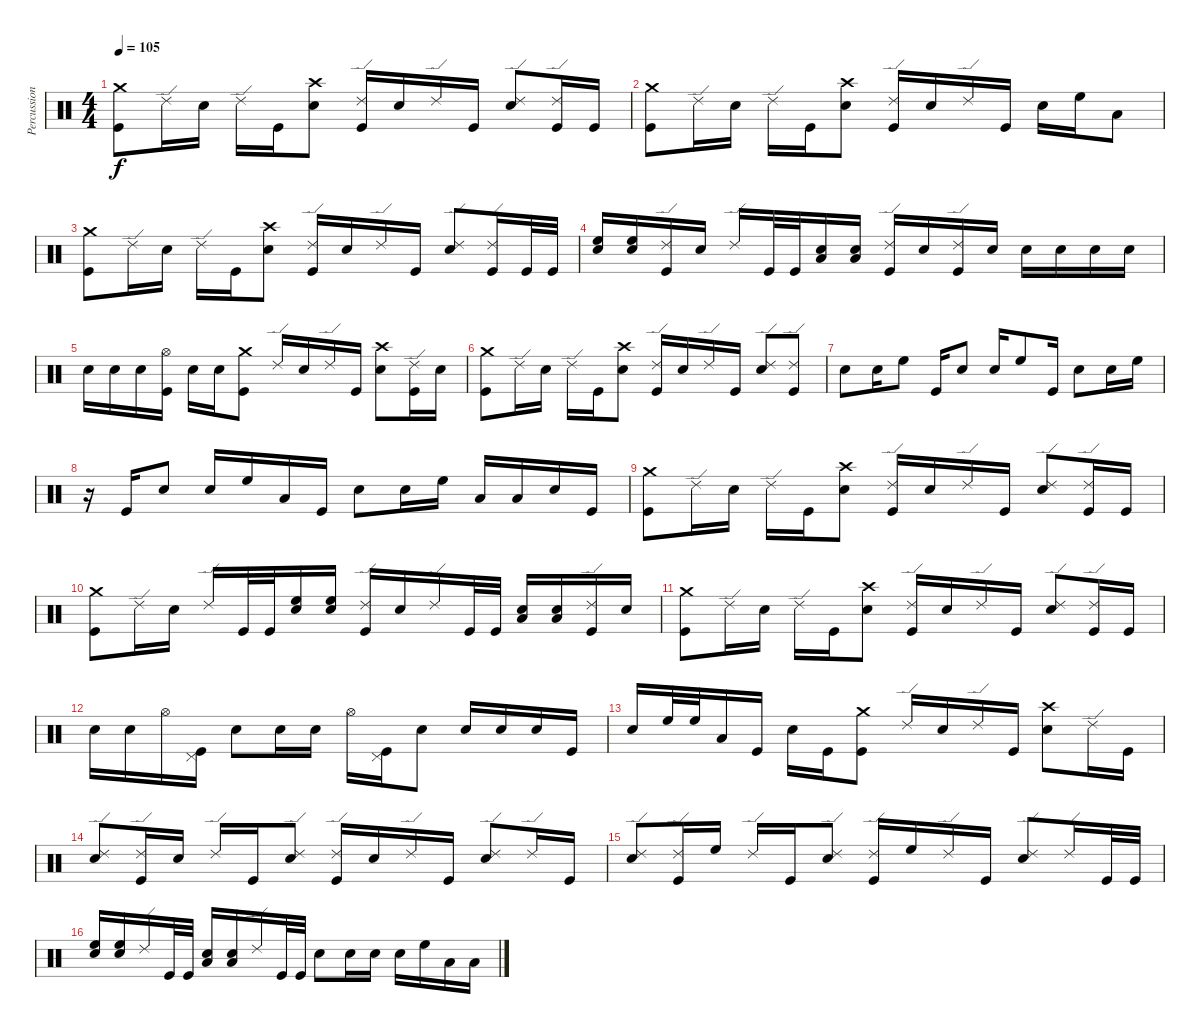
\track ("Percussion" "Percussion") {instrument percussion}
\staff {score}
\articulation defaults
\ts (4 4)
\tempo 105
\clef neutral
\ks c
("Kick (hit)" "Crash medium (hit)").8{dy f} "Ride (edge) 2".16 "Electric Snare (hit)".16 "Ride (edge) 2".16 "Kick (hit)".16 ("Electric Snare (hit)" "Crash high (hit)").8 ("Kick (hit)" "Ride (edge) 2").16 "Electric Snare (hit)".16 "Ride (edge) 2".16 "Kick (hit)".16 ("Electric Snare (hit)" "Ride (edge) 2").8 ("Ride (edge) 2" "Kick (hit)").16 "Kick (hit)".16 |
("Kick (hit)" "Crash medium (hit)").8 "Ride (edge) 2".16 "Electric Snare (hit)".16 "Ride (edge) 2".16 "Kick (hit)".16 ("Electric Snare (hit)" "Crash high (hit)").8 ("Ride (edge) 2" "Kick (hit)").16 "Electric Snare (hit)".16 "Ride (edge) 2".16 "Kick (hit)".16 "Electric Snare (hit)".16 "High Floor Tom (hit)".16 "Low Tom (hit)".8 |
("Kick (hit)" "Crash medium (hit)").8 "Ride (edge) 2".16 "Electric Snare (hit)".16 "Ride (edge) 2".16 "Kick (hit)".16 ("Electric Snare (hit)" "Crash high (hit)").8 ("Ride (edge) 2" "Kick (hit)").16 "Electric Snare (hit)".16 "Ride (edge) 2".16 "Kick (hit)".16 ("Electric Snare (hit)" "Ride (edge) 2").8 ("Ride (edge) 2" "Kick (hit)").16 "Kick (hit)".32 "Kick (hit)".32 |
("Electric Snare (hit)" "High Floor Tom (hit)").16 ("Electric Snare (hit)" "High Floor Tom (hit)").16 ("Kick (hit)" "Ride (edge) 2").16 "Electric Snare (hit)".16 "Ride (edge) 2".16 "Kick (hit)".32 "Kick (hit)".32 ("Electric Snare (hit)" "Low Tom (hit)").16 ("Electric Snare (hit)" "Low Tom (hit)").16 ("Kick (hit)" "Ride (edge) 2").16 "Electric Snare (hit)".16 ("Ride (edge) 2" "Kick (hit)").16 "Electric Snare (hit)".16 "Electric Snare (hit)".16 "Electric Snare (hit)".16 "Electric Snare (hit)".16 "Electric Snare (hit)".16 |
"Electric Snare (hit)".16 "Electric Snare (hit)".16 "Electric Snare (hit)".16 ("Kick (hit)" "Hi-Hat (open)").16 "Electric Snare (hit)".16 "Electric Snare (hit)".16 ("Kick (hit)" "Crash medium (hit)").8 "Ride (edge) 2".16 "Electric Snare (hit)".16 "Ride (edge) 2".16 "Kick (hit)".16 ("Electric Snare (hit)" "Crash high (hit)").8 ("Kick (hit)" "Ride (edge) 2").16 "Electric Snare (hit)".16 |
("Kick (hit)" "Crash medium (hit)").8 "Ride (edge) 2".16 "Electric Snare (hit)".16 "Ride (edge) 2".16 "Kick (hit)".16 ("Electric Snare (hit)" "Crash high (hit)").8 ("Kick (hit)" "Ride (edge) 2").16 "Electric Snare (hit)".16 "Ride (edge) 2".16 "Kick (hit)".16 ("Electric Snare (hit)" "Ride (edge) 2").8 ("Ride (edge) 2" "Kick (hit)").8 |
"Electric Snare (hit)".8 "Electric Snare (hit)".16 "High Floor Tom (hit)".8 "Kick (hit)".16 "Electric Snare (hit)".8 "Electric Snare (hit)".16 "High Floor Tom (hit)".8 "Kick (hit)".16 "Electric Snare (hit)".8 "Electric Snare (hit)".16 "High Floor Tom (hit)".16 |
r.16 "Kick (hit)".16 "Electric Snare (hit)".8 "Electric Snare (hit)".16 "High Floor Tom (hit)".16 "Low Tom (hit)".16 "Kick (hit)".16 "Electric Snare (hit)".8 "Electric Snare (hit)".16 "High Floor Tom (hit)".16 "Low Tom (hit)".16 "Low Tom (hit)".16 "Electric Snare (hit)".16 "Kick (hit)".16 |
("Kick (hit)" "Crash medium (hit)").8 "Ride (edge) 2".16 "Electric Snare (hit)".16 "Ride (edge) 2".16 "Kick (hit)".16 ("Electric Snare (hit)" "Crash high (hit)").8 ("Kick (hit)" "Ride (edge) 2").16 "Electric Snare (hit)".16 "Ride (edge) 2".16 "Kick (hit)".16 ("Electric Snare (hit)" "Ride (edge) 2").8 ("Ride (edge) 2" "Kick (hit)").16 "Kick (hit)".16 |
("Kick (hit)" "Crash medium (hit)").8 "Ride (edge) 2".16 "Electric Snare (hit)".16 "Ride (edge) 2".16 "Kick (hit)".32 "Kick (hit)".32 ("Electric Snare (hit)" "High Floor Tom (hit)").16 ("Electric Snare (hit)" "High Floor Tom (hit)").16 ("Ride (edge) 2" "Kick (hit)").16 "Electric Snare (hit)".16 "Ride (edge) 2".16 "Kick (hit)".32 "Kick (hit)".32 ("Electric Snare (hit)" "Low Tom (hit)").16 ("Electric Snare (hit)" "Low Tom (hit)").16 ("Kick (hit)" "Ride (edge) 2").16 "Electric Snare (hit)".16 |
("Kick (hit)" "Crash medium (hit)").8 "Ride (edge) 2".16 "Electric Snare (hit)".16 "Ride (edge) 2".16 "Kick (hit)".16 ("Electric Snare (hit)" "Crash high (hit)").8 ("Kick (hit)" "Ride (edge) 2").16 "Electric Snare (hit)".16 "Ride (edge) 2".16 "Kick (hit)".16 ("Electric Snare (hit)" "Ride (edge) 2").8 ("Ride (edge) 2" "Kick (hit)").16 "Kick (hit)".16 |
"Electric Snare (hit)".16 "Electric Snare (hit)".16 "Hi-Hat (open)".16 ("Pedal Hi-Hat (hit)" "Kick (hit)").16 "Electric Snare (hit)".8 "Electric Snare (hit)".16 "Electric Snare (hit)".16 "Hi-Hat (open)".16 ("Pedal Hi-Hat (hit)" "Kick (hit)").16 "Electric Snare (hit)".8 "Electric Snare (hit)".16 "Electric Snare (hit)".16 "Electric Snare (hit)".16 "Kick (hit)".16 |
"Electric Snare (hit)".16 "High Floor Tom (hit)".32 "High Floor Tom (hit)".32 "Low Tom (hit)".16 "Kick (hit)".16 "Electric Snare (hit)".16 "Kick (hit)".16 ("Kick (hit)" "Crash medium (hit)").8 "Ride (edge) 2".16 "Electric Snare (hit)".16 "Ride (edge) 2".16 "Kick (hit)".16 ("Electric Snare (hit)" "Crash high (hit)").8 "Ride (edge) 2".16 "Kick (hit)".16 |
("Electric Snare (hit)" "Ride (edge) 2").8 ("Kick (hit)" "Ride (edge) 2").16 "Electric Snare (hit)".16 "Ride (edge) 2".16 "Kick (hit)".16 ("Ride (edge) 2" "Electric Snare (hit)").8 ("Kick (hit)" "Ride (edge) 2").16 "Electric Snare (hit)".16 "Ride (edge) 2".16 "Kick (hit)".16 ("Electric Snare (hit)" "Ride (edge) 2").8 "Ride (edge) 2".16 "Kick (hit)".16 |
("Electric Snare (hit)" "Ride (edge) 2").8 ("Kick (hit)" "Ride (edge) 2").16 "High Floor Tom (hit)".16 "Ride (edge) 2".16 "Kick (hit)".16 ("Ride (edge) 2" "Electric Snare (hit)").8 ("Kick (hit)" "Ride (edge) 2").16 "High Floor Tom (hit)".16 "Ride (edge) 2".16 "Kick (hit)".16 ("Electric Snare (hit)" "Ride (edge) 2").8 "Ride (edge) 2".16 "Kick (hit)".32 "Kick (hit)".32 |
("Electric Snare (hit)" "High Floor Tom (hit)").16 ("High Floor Tom (hit)" "Electric Snare (hit)").16 "Ride (edge) 2".16 "Kick (hit)".32 "Kick (hit)".32 ("Electric Snare (hit)" "Low Tom (hit)").16 ("Electric Snare (hit)" "Low Tom (hit)").16 "Ride (edge) 2".16 "Kick (hit)".32 "Kick (hit)".32 "Electric Snare (hit)".8 "Electric Snare (hit)".16 "Electric Snare (hit)".16 "Electric Snare (hit)".16 "High Floor Tom (hit)".16 "Low Tom (hit)".16 "Low Tom (hit)".16
